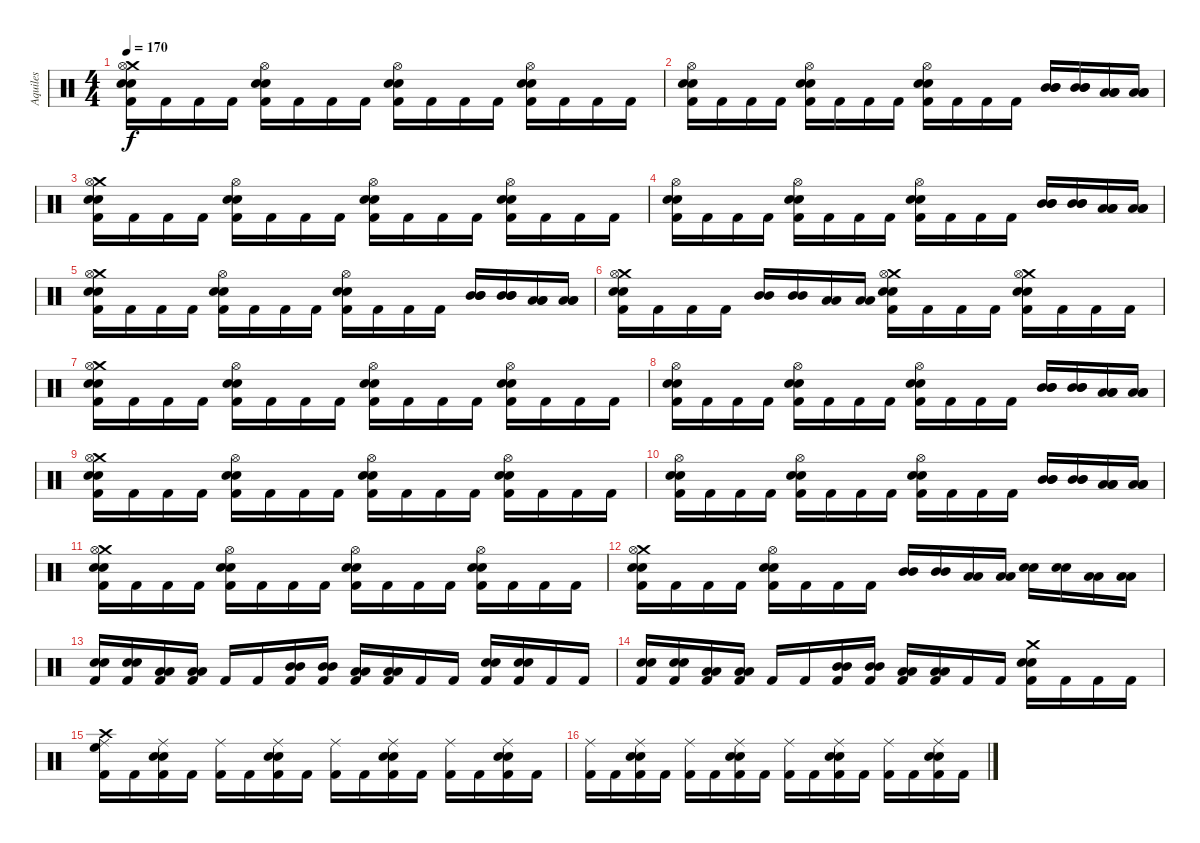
\track ("Aquiles" "Aquiles") {instrument percussion}
\staff {score}
\articulation defaults
\ts (4 4)
\tempo 170
\clef neutral
\ks c
("Crash medium (hit)" "Hi-Hat (open)" "Electric Snare (hit)" "Snare (hit) 2" "Kick (hit) 2").16{dy f} "Kick (hit) 2".16 "Kick (hit) 2".16 "Kick (hit) 2".16 ("Hi-Hat (open)" "Electric Snare (hit)" "Snare (hit) 2" "Kick (hit) 2").16 "Kick (hit) 2".16 "Kick (hit) 2".16 "Kick (hit) 2".16 ("Hi-Hat (open)" "Electric Snare (hit)" "Snare (hit) 2" "Kick (hit) 2").16 "Kick (hit) 2".16 "Kick (hit) 2".16 "Kick (hit) 2".16 ("Hi-Hat (open)" "Electric Snare (hit)" "Snare (hit) 2" "Kick (hit) 2").16 "Kick (hit) 2".16 "Kick (hit) 2".16 "Kick (hit) 2".16 |
("Hi-Hat (open)" "Electric Snare (hit)" "Snare (hit) 2" "Kick (hit) 2").16 "Kick (hit) 2".16 "Kick (hit) 2".16 "Kick (hit) 2".16 ("Hi-Hat (open)" "Electric Snare (hit)" "Snare (hit) 2" "Kick (hit) 2").16 "Kick (hit) 2".16 "Kick (hit) 2".16 "Kick (hit) 2".16 ("Hi-Hat (open)" "Electric Snare (hit)" "Snare (hit) 2" "Kick (hit) 2").16 "Kick (hit) 2".16 "Kick (hit) 2".16 "Kick (hit) 2".16 ("Mid Tom (hit)" "Mid Tom (hit)" "Mid Tom (hit)").16 ("Mid Tom (hit)" "Mid Tom (hit)" "Mid Tom (hit)").16 ("Low Tom (hit)" "Low Tom (hit)" "Low Tom (hit)").16 ("Low Tom (hit)" "Low Tom (hit)" "Low Tom (hit)").16 |
("Crash medium (hit)" "Hi-Hat (open)" "Electric Snare (hit)" "Snare (hit) 2" "Kick (hit) 2").16 "Kick (hit) 2".16 "Kick (hit) 2".16 "Kick (hit) 2".16 ("Hi-Hat (open)" "Electric Snare (hit)" "Snare (hit) 2" "Kick (hit) 2").16 "Kick (hit) 2".16 "Kick (hit) 2".16 "Kick (hit) 2".16 ("Hi-Hat (open)" "Electric Snare (hit)" "Snare (hit) 2" "Kick (hit) 2").16 "Kick (hit) 2".16 "Kick (hit) 2".16 "Kick (hit) 2".16 ("Hi-Hat (open)" "Electric Snare (hit)" "Snare (hit) 2" "Kick (hit) 2").16 "Kick (hit) 2".16 "Kick (hit) 2".16 "Kick (hit) 2".16 |
("Hi-Hat (open)" "Electric Snare (hit)" "Snare (hit) 2" "Kick (hit) 2").16 "Kick (hit) 2".16 "Kick (hit) 2".16 "Kick (hit) 2".16 ("Hi-Hat (open)" "Electric Snare (hit)" "Snare (hit) 2" "Kick (hit) 2").16 "Kick (hit) 2".16 "Kick (hit) 2".16 "Kick (hit) 2".16 ("Hi-Hat (open)" "Electric Snare (hit)" "Snare (hit) 2" "Kick (hit) 2").16 "Kick (hit) 2".16 "Kick (hit) 2".16 "Kick (hit) 2".16 ("Mid Tom (hit)" "Mid Tom (hit)" "Mid Tom (hit)").16 ("Mid Tom (hit)" "Mid Tom (hit)" "Mid Tom (hit)").16 ("Low Tom (hit)" "Low Tom (hit)" "Low Tom (hit)").16 ("Low Tom (hit)" "Low Tom (hit)" "Low Tom (hit)").16 |
("Crash medium (hit)" "Hi-Hat (open)" "Electric Snare (hit)" "Snare (hit) 2" "Kick (hit) 2").16 "Kick (hit) 2".16 "Kick (hit) 2".16 "Kick (hit) 2".16 ("Hi-Hat (open)" "Electric Snare (hit)" "Snare (hit) 2" "Kick (hit) 2").16 "Kick (hit) 2".16 "Kick (hit) 2".16 "Kick (hit) 2".16 ("Hi-Hat (open)" "Electric Snare (hit)" "Snare (hit) 2" "Kick (hit) 2").16 "Kick (hit) 2".16 "Kick (hit) 2".16 "Kick (hit) 2".16 ("Mid Tom (hit)" "Mid Tom (hit)" "Mid Tom (hit)").16 ("Mid Tom (hit)" "Mid Tom (hit)" "Mid Tom (hit)").16 ("Low Tom (hit)" "Low Tom (hit)" "Low Tom (hit)").16 ("Low Tom (hit)" "Low Tom (hit)" "Low Tom (hit)").16 |
("Crash medium (hit)" "Hi-Hat (open)" "Electric Snare (hit)" "Snare (hit) 2" "Kick (hit) 2").16 "Kick (hit) 2".16 "Kick (hit) 2".16 "Kick (hit) 2".16 ("Mid Tom (hit)" "Mid Tom (hit)").16 ("Mid Tom (hit)" "Mid Tom (hit)").16 ("Low Tom (hit)" "Low Tom (hit)").16 ("Low Tom (hit)" "Low Tom (hit)").16 ("Crash medium (hit)" "Hi-Hat (open)" "Electric Snare (hit)" "Snare (hit) 2" "Kick (hit) 2").16 "Kick (hit) 2".16 "Kick (hit) 2".16 "Kick (hit) 2".16 ("Crash medium (hit)" "Hi-Hat (open)" "Electric Snare (hit)" "Snare (hit) 2" "Kick (hit) 2").16 "Kick (hit) 2".16 "Kick (hit) 2".16 "Kick (hit) 2".16 |
("Crash medium (hit)" "Hi-Hat (open)" "Electric Snare (hit)" "Snare (hit) 2" "Kick (hit) 2").16 "Kick (hit) 2".16 "Kick (hit) 2".16 "Kick (hit) 2".16 ("Hi-Hat (open)" "Electric Snare (hit)" "Snare (hit) 2" "Kick (hit) 2").16 "Kick (hit) 2".16 "Kick (hit) 2".16 "Kick (hit) 2".16 ("Hi-Hat (open)" "Electric Snare (hit)" "Snare (hit) 2" "Kick (hit) 2").16 "Kick (hit) 2".16 "Kick (hit) 2".16 "Kick (hit) 2".16 ("Hi-Hat (open)" "Electric Snare (hit)" "Snare (hit) 2" "Kick (hit) 2").16 "Kick (hit) 2".16 "Kick (hit) 2".16 "Kick (hit) 2".16 |
("Hi-Hat (open)" "Electric Snare (hit)" "Snare (hit) 2" "Kick (hit) 2").16 "Kick (hit) 2".16 "Kick (hit) 2".16 "Kick (hit) 2".16 ("Hi-Hat (open)" "Electric Snare (hit)" "Snare (hit) 2" "Kick (hit) 2").16 "Kick (hit) 2".16 "Kick (hit) 2".16 "Kick (hit) 2".16 ("Hi-Hat (open)" "Electric Snare (hit)" "Snare (hit) 2" "Kick (hit) 2").16 "Kick (hit) 2".16 "Kick (hit) 2".16 "Kick (hit) 2".16 ("Mid Tom (hit)" "Mid Tom (hit)" "Mid Tom (hit)").16 ("Mid Tom (hit)" "Mid Tom (hit)" "Mid Tom (hit)").16 ("Low Tom (hit)" "Low Tom (hit)" "Low Tom (hit)").16 ("Low Tom (hit)" "Low Tom (hit)" "Low Tom (hit)").16 |
("Crash medium (hit)" "Hi-Hat (open)" "Electric Snare (hit)" "Snare (hit) 2" "Kick (hit) 2").16 "Kick (hit) 2".16 "Kick (hit) 2".16 "Kick (hit) 2".16 ("Hi-Hat (open)" "Electric Snare (hit)" "Snare (hit) 2" "Kick (hit) 2").16 "Kick (hit) 2".16 "Kick (hit) 2".16 "Kick (hit) 2".16 ("Hi-Hat (open)" "Electric Snare (hit)" "Snare (hit) 2" "Kick (hit) 2").16 "Kick (hit) 2".16 "Kick (hit) 2".16 "Kick (hit) 2".16 ("Hi-Hat (open)" "Electric Snare (hit)" "Snare (hit) 2" "Kick (hit) 2").16 "Kick (hit) 2".16 "Kick (hit) 2".16 "Kick (hit) 2".16 |
("Hi-Hat (open)" "Electric Snare (hit)" "Snare (hit) 2" "Kick (hit) 2").16 "Kick (hit) 2".16 "Kick (hit) 2".16 "Kick (hit) 2".16 ("Hi-Hat (open)" "Electric Snare (hit)" "Snare (hit) 2" "Kick (hit) 2").16 "Kick (hit) 2".16 "Kick (hit) 2".16 "Kick (hit) 2".16 ("Hi-Hat (open)" "Electric Snare (hit)" "Snare (hit) 2" "Kick (hit) 2").16 "Kick (hit) 2".16 "Kick (hit) 2".16 "Kick (hit) 2".16 ("Mid Tom (hit)" "Mid Tom (hit)" "Mid Tom (hit)").16 ("Mid Tom (hit)" "Mid Tom (hit)" "Mid Tom (hit)").16 ("Low Tom (hit)" "Low Tom (hit)" "Low Tom (hit)").16 ("Low Tom (hit)" "Low Tom (hit)" "Low Tom (hit)").16 |
("Crash medium (hit)" "Hi-Hat (open)" "Electric Snare (hit)" "Snare (hit) 2" "Kick (hit) 2").16 "Kick (hit) 2".16 "Kick (hit) 2".16 "Kick (hit) 2".16 ("Hi-Hat (open)" "Electric Snare (hit)" "Snare (hit) 2" "Kick (hit) 2").16 "Kick (hit) 2".16 "Kick (hit) 2".16 "Kick (hit) 2".16 ("Hi-Hat (open)" "Electric Snare (hit)" "Snare (hit) 2" "Kick (hit) 2").16 "Kick (hit) 2".16 "Kick (hit) 2".16 "Kick (hit) 2".16 ("Hi-Hat (open)" "Electric Snare (hit)" "Snare (hit) 2" "Kick (hit) 2").16 "Kick (hit) 2".16 "Kick (hit) 2".16 "Kick (hit) 2".16 |
("Crash medium (hit)" "Hi-Hat (open)" "Electric Snare (hit)" "Snare (hit) 2" "Kick (hit) 2").16 "Kick (hit) 2".16 "Kick (hit) 2".16 "Kick (hit) 2".16 ("Hi-Hat (open)" "Electric Snare (hit)" "Snare (hit) 2" "Kick (hit) 2").16 "Kick (hit) 2".16 "Kick (hit) 2".16 "Kick (hit) 2".16 ("Mid Tom (hit)" "Mid Tom (hit)").16 ("Mid Tom (hit)" "Mid Tom (hit)").16 ("Low Tom (hit)" "Low Tom (hit)").16 ("Low Tom (hit)" "Low Tom (hit)").16 ("Electric Snare (hit)" "Snare (hit) 2").16 ("Electric Snare (hit)" "Snare (hit) 2").16 ("Low Tom (hit)" "Low Tom (hit)").16 ("Low Tom (hit)" "Low Tom (hit)").16 |
("Electric Snare (hit)" "Snare (hit) 2" "Kick (hit) 2").16 ("Electric Snare (hit)" "Snare (hit) 2" "Kick (hit) 2").16 ("Low Tom (hit)" "Low Tom (hit)" "Kick (hit) 2").16 ("Low Tom (hit)" "Low Tom (hit)" "Kick (hit) 2").16 "Kick (hit) 2".16 "Kick (hit) 2".16 ("Mid Tom (hit)" "Mid Tom (hit)" "Kick (hit) 2").16 ("Mid Tom (hit)" "Mid Tom (hit)" "Kick (hit) 2").16 ("Low Tom (hit)" "Low Tom (hit)" "Kick (hit) 2").16 ("Low Tom (hit)" "Low Tom (hit)" "Kick (hit) 2").16 "Kick (hit) 2".16 "Kick (hit) 2".16 ("Electric Snare (hit)" "Snare (hit) 2" "Kick (hit) 2").16 ("Electric Snare (hit)" "Snare (hit) 2" "Kick (hit) 2").16 "Kick (hit) 2".16 "Kick (hit) 2".16 |
("Electric Snare (hit)" "Snare (hit) 2" "Kick (hit) 2").16 ("Electric Snare (hit)" "Snare (hit) 2" "Kick (hit) 2").16 ("Low Tom (hit)" "Low Tom (hit)" "Kick (hit) 2").16 ("Low Tom (hit)" "Low Tom (hit)" "Kick (hit) 2").16 "Kick (hit) 2".16 "Kick (hit) 2".16 ("Mid Tom (hit)" "Mid Tom (hit)" "Kick (hit) 2").16 ("Mid Tom (hit)" "Mid Tom (hit)" "Kick (hit) 2").16 ("Low Tom (hit)" "Low Tom (hit)" "Kick (hit) 2").16 ("Low Tom (hit)" "Low Tom (hit)" "Kick (hit) 2").16 "Kick (hit) 2".16 "Kick (hit) 2".16 ("Crash medium (hit)" "Electric Snare (hit)" "Snare (hit) 2" "Kick (hit) 2").16 "Kick (hit) 2".16 "Kick (hit) 2".16 "Kick (hit) 2".16 |
("High Floor Tom (hit)" "Ride (middle)" "Crash high (hit)" "Kick (hit) 2").16 "Kick (hit) 2".16 ("Ride (middle)" "Electric Snare (hit)" "Snare (hit) 2" "Kick (hit) 2").16 "Kick (hit) 2".16 ("Ride (middle)" "Kick (hit) 2").16 "Kick (hit) 2".16 ("Ride (middle)" "Electric Snare (hit)" "Snare (hit) 2" "Kick (hit) 2").16 "Kick (hit) 2".16 ("Ride (middle)" "Kick (hit) 2").16 "Kick (hit) 2".16 ("Ride (middle)" "Electric Snare (hit)" "Snare (hit) 2" "Kick (hit) 2").16 "Kick (hit) 2".16 ("Ride (middle)" "Kick (hit) 2").16 "Kick (hit) 2".16 ("Ride (middle)" "Electric Snare (hit)" "Snare (hit) 2" "Kick (hit) 2").16 "Kick (hit) 2".16 |
("Ride (middle)" "Kick (hit) 2").16 "Kick (hit) 2".16 ("Ride (middle)" "Electric Snare (hit)" "Snare (hit) 2" "Kick (hit) 2").16 "Kick (hit) 2".16 ("Ride (middle)" "Kick (hit) 2").16 "Kick (hit) 2".16 ("Ride (middle)" "Electric Snare (hit)" "Snare (hit) 2" "Kick (hit) 2").16 "Kick (hit) 2".16 ("Ride (middle)" "Kick (hit) 2").16 "Kick (hit) 2".16 ("Ride (middle)" "Electric Snare (hit)" "Snare (hit) 2" "Kick (hit) 2").16 "Kick (hit) 2".16 ("Ride (middle)" "Kick (hit) 2").16 "Kick (hit) 2".16 ("Ride (middle)" "Electric Snare (hit)" "Snare (hit) 2" "Kick (hit) 2").16 "Kick (hit) 2".16
